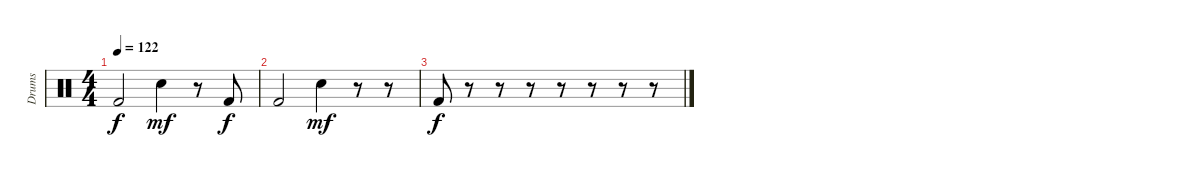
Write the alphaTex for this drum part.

\track ("Drums" "Drums") {instrument percussion}
\staff {score}
\articulation defaults
\ts (4 4)
\tempo 122
\clef neutral
\ks c "Kick (hit) 2".2{dy f} "Electric Snare (hit)".4{dy mf}
r.8 "Kick (hit) 2".8{dy f} |
"Kick (hit) 2".2 "Electric Snare (hit)".4{dy mf} r.8 r.8 |
"Kick (hit) 2".8{dy f} r.8 r.8 r.8 r.8 r.8 r.8 r.8
